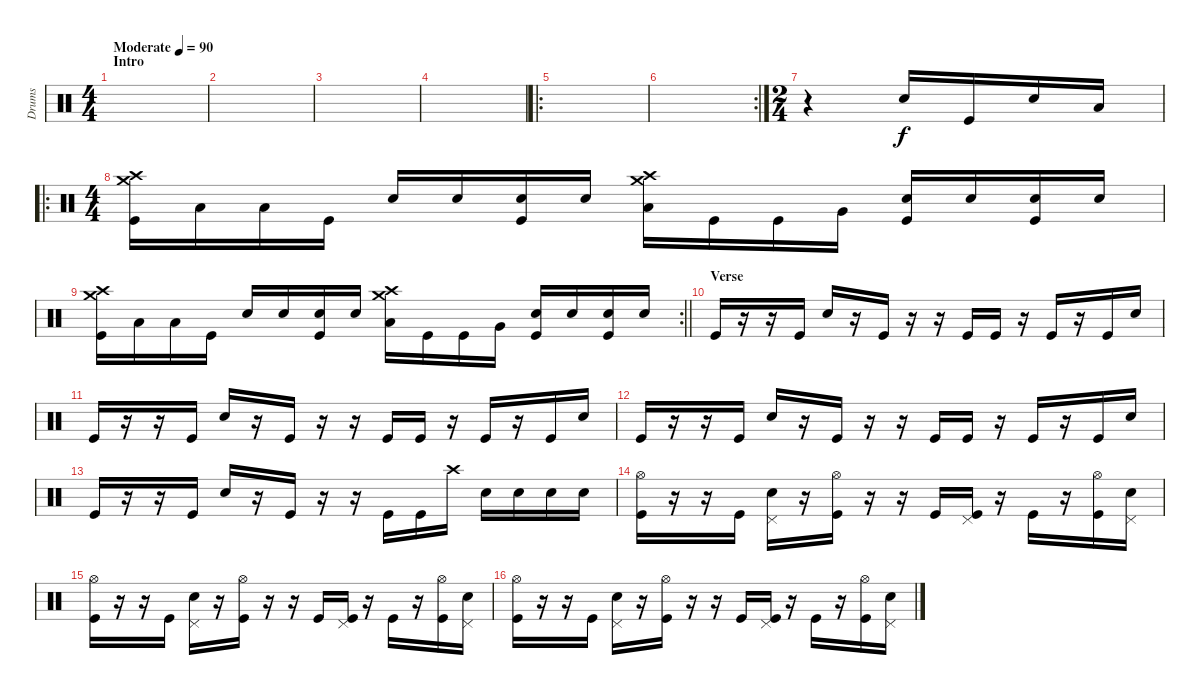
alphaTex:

\track ("Drums" "Drums") {instrument percussion}
\staff {score}
\articulation defaults
\ts (4 4)
\section ("" "Intro")
\tempo (90 "Moderate")
\clef neutral
\ks c
|
|
|
|
\ro
|
\rc 2
|
\ts (2 4)
r.4 "Snare (hit) 2".16 "Kick (hit)".16 "Snare (hit) 2".16 "Low Floor Tom (hit)".16 |
\ro
\ts (4 4)
("Crash medium (hit)" "Crash high (hit)" "Kick (hit)").16 "Low Tom (hit)".16 "Low Floor Tom (hit)".16 "Kick (hit)".16 "Snare (hit) 2".16 "Snare (hit) 2".16 ("Snare (hit) 2" "Kick (hit)").16 "Snare (hit) 2".16 ("Crash medium (hit)" "Crash high (hit)" "Low Floor Tom (hit)").16 "Kick (hit)".16 "Kick (hit)".16 "Very Low Tom (hit)".16 ("Snare (hit) 2" "Kick (hit)").16 "Snare (hit) 2".16 ("Snare (hit) 2" "Kick (hit)").16 "Snare (hit) 2".16 |
\rc 2
\barLineRight lightlight
("Crash medium (hit)" "Crash high (hit)" "Kick (hit)").16 "Low Tom (hit)".16 "Low Floor Tom (hit)".16 "Kick (hit)".16 "Snare (hit) 2".16 "Snare (hit) 2".16 ("Snare (hit) 2" "Kick (hit)").16 "Snare (hit) 2".16 ("Crash medium (hit)" "Crash high (hit)" "Low Floor Tom (hit)").16 "Kick (hit)".16 "Kick (hit)".16 "Very Low Tom (hit)".16 ("Snare (hit) 2" "Kick (hit)").16 "Snare (hit) 2".16 ("Snare (hit) 2" "Kick (hit)").16 "Snare (hit) 2".16 |
\section ("" "Verse")
"Kick (hit)".16 r.16 r.16 "Kick (hit)".16 "Snare (hit) 2".16 r.16 "Kick (hit)".16 r.16 r.16 "Kick (hit)".16 "Kick (hit)".16 r.16 "Kick (hit)".16 r.16 "Kick (hit)".16 "Snare (hit) 2".16 |
"Kick (hit)".16 r.16 r.16 "Kick (hit)".16 "Snare (hit) 2".16 r.16 "Kick (hit)".16 r.16 r.16 "Kick (hit)".16 "Kick (hit)".16 r.16 "Kick (hit)".16 r.16 "Kick (hit)".16 "Snare (hit) 2".16 |
"Kick (hit)".16 r.16 r.16 "Kick (hit)".16 "Snare (hit) 2".16 r.16 "Kick (hit)".16 r.16 r.16 "Kick (hit)".16 "Kick (hit)".16 r.16 "Kick (hit)".16 r.16 "Kick (hit)".16 "Snare (hit) 2".16 |
"Kick (hit)".16 r.16 r.16 "Kick (hit)".16 "Snare (hit) 2".16 r.16 "Kick (hit)".16 r.16 r.16 "Kick (hit)".16 "Kick (hit)".16 "Crash high (hit)".16 "Snare (hit) 2".16 "Snare (hit) 2".16 "Snare (hit) 2".16 "Snare (hit) 2".16 |
("Hi-Hat (open)" "Kick (hit)").16 r.16 r.16 "Kick (hit)".16 ("Pedal Hi-Hat (hit)" "Snare (hit) 2").16 r.16 ("Hi-Hat (open)" "Kick (hit)").16 r.16 r.16 "Kick (hit)".16 ("Pedal Hi-Hat (hit)" "Kick (hit)").16 r.16 "Kick (hit)".16 r.16 ("Hi-Hat (open)" "Kick (hit)").16 ("Pedal Hi-Hat (hit)" "Snare (hit) 2").16 |
("Hi-Hat (open)" "Kick (hit)").16 r.16 r.16 "Kick (hit)".16 ("Pedal Hi-Hat (hit)" "Snare (hit) 2").16 r.16 ("Hi-Hat (open)" "Kick (hit)").16 r.16 r.16 "Kick (hit)".16 ("Pedal Hi-Hat (hit)" "Kick (hit)").16 r.16 "Kick (hit)".16 r.16 ("Hi-Hat (open)" "Kick (hit)").16 ("Pedal Hi-Hat (hit)" "Snare (hit) 2").16 |
("Hi-Hat (open)" "Kick (hit)").16 r.16 r.16 "Kick (hit)".16 ("Pedal Hi-Hat (hit)" "Snare (hit) 2").16 r.16 ("Hi-Hat (open)" "Kick (hit)").16 r.16 r.16 "Kick (hit)".16 ("Pedal Hi-Hat (hit)" "Kick (hit)").16 r.16 "Kick (hit)".16 r.16 ("Hi-Hat (open)" "Kick (hit)").16 ("Pedal Hi-Hat (hit)" "Snare (hit) 2").16
